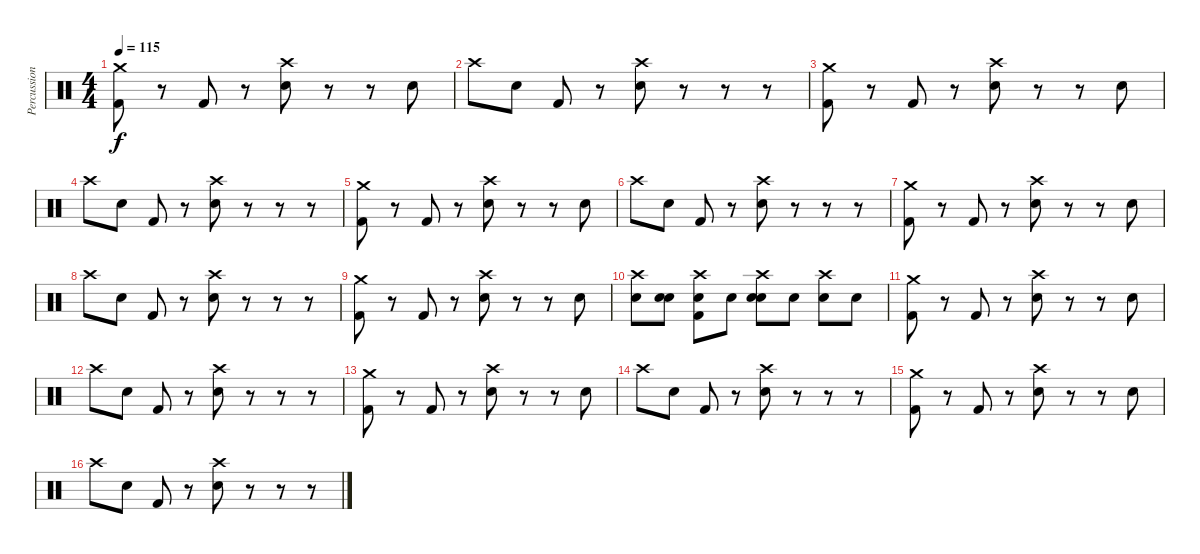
\track ("Percussion" "Percussion") {instrument percussion}
\staff {score}
\articulation defaults
\ts (4 4)
\tempo 115
\clef neutral
\ks c
("Kick (hit) 2" "Crash medium (hit)").8{dy f} r.8 "Kick (hit) 2".8 r.8 ("Electric Snare (hit)" "Crash high (hit)").8 r.8 r.8 "Electric Snare (hit)".8 |
"Crash high (hit)".8 "Electric Snare (hit)".8 "Kick (hit) 2".8 r.8 ("Electric Snare (hit)" "Crash high (hit)").8 r.8 r.8 r.8 |
("Kick (hit) 2" "Crash medium (hit)").8 r.8 "Kick (hit) 2".8 r.8 ("Electric Snare (hit)" "Crash high (hit)").8 r.8 r.8 "Electric Snare (hit)".8 |
"Crash high (hit)".8 "Electric Snare (hit)".8 "Kick (hit) 2".8 r.8 ("Electric Snare (hit)" "Crash high (hit)").8 r.8 r.8 r.8 |
("Kick (hit) 2" "Crash medium (hit)").8 r.8 "Kick (hit) 2".8 r.8 ("Electric Snare (hit)" "Crash high (hit)").8 r.8 r.8 "Electric Snare (hit)".8 |
"Crash high (hit)".8 "Electric Snare (hit)".8 "Kick (hit) 2".8 r.8 ("Electric Snare (hit)" "Crash high (hit)").8 r.8 r.8 r.8 |
("Kick (hit) 2" "Crash medium (hit)").8 r.8 "Kick (hit) 2".8 r.8 ("Electric Snare (hit)" "Crash high (hit)").8 r.8 r.8 "Electric Snare (hit)".8 |
"Crash high (hit)".8 "Electric Snare (hit)".8 "Kick (hit) 2".8 r.8 ("Electric Snare (hit)" "Crash high (hit)").8 r.8 r.8 r.8 |
("Kick (hit) 2" "Crash medium (hit)").8 r.8 "Kick (hit) 2".8 r.8 ("Electric Snare (hit)" "Crash high (hit)").8 r.8 r.8 "Electric Snare (hit)".8 |
("Crash high (hit)" "Electric Snare (hit)").8 ("Electric Snare (hit)" "Electric Snare (hit)").8 ("Kick (hit) 2" "Crash high (hit)" "Electric Snare (hit)").8 "Electric Snare (hit)".8 ("Electric Snare (hit)" "Crash high (hit)" "Electric Snare (hit)").8 "Electric Snare (hit)".8 ("Crash high (hit)" "Electric Snare (hit)").8 "Electric Snare (hit)".8 |
("Kick (hit) 2" "Crash medium (hit)").8 r.8 "Kick (hit) 2".8 r.8 ("Electric Snare (hit)" "Crash high (hit)").8 r.8 r.8 "Electric Snare (hit)".8 |
"Crash high (hit)".8 "Electric Snare (hit)".8 "Kick (hit) 2".8 r.8 ("Electric Snare (hit)" "Crash high (hit)").8 r.8 r.8 r.8 |
("Kick (hit) 2" "Crash medium (hit)").8 r.8 "Kick (hit) 2".8 r.8 ("Electric Snare (hit)" "Crash high (hit)").8 r.8 r.8 "Electric Snare (hit)".8 |
"Crash high (hit)".8 "Electric Snare (hit)".8 "Kick (hit) 2".8 r.8 ("Electric Snare (hit)" "Crash high (hit)").8 r.8 r.8 r.8 |
("Kick (hit) 2" "Crash medium (hit)").8 r.8 "Kick (hit) 2".8 r.8 ("Electric Snare (hit)" "Crash high (hit)").8 r.8 r.8 "Electric Snare (hit)".8 |
"Crash high (hit)".8 "Electric Snare (hit)".8 "Kick (hit) 2".8 r.8 ("Electric Snare (hit)" "Crash high (hit)").8 r.8 r.8 r.8
